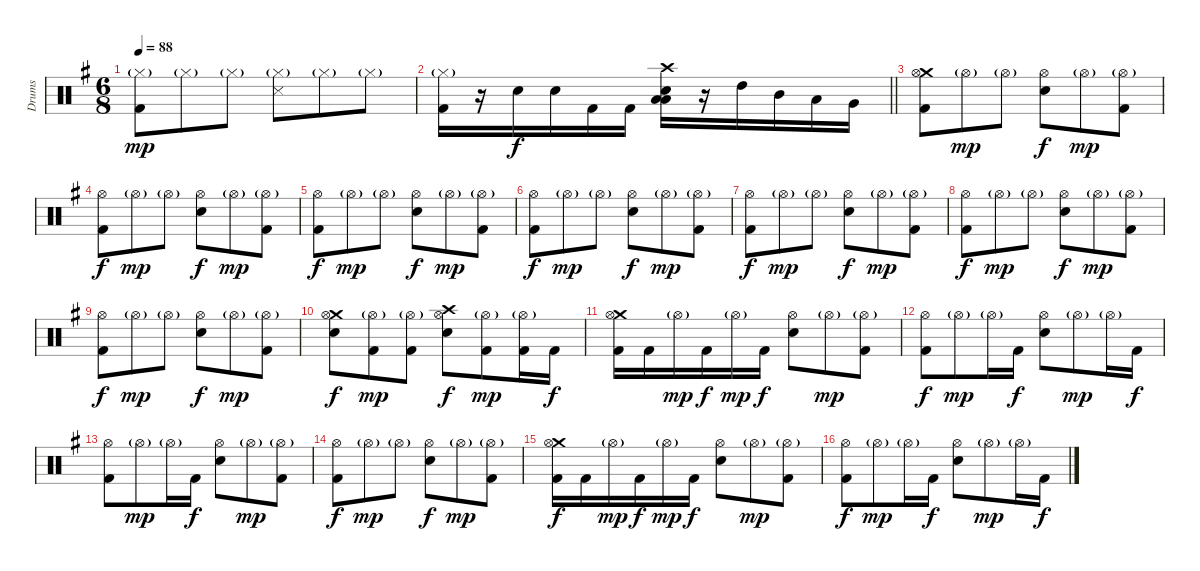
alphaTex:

\track ("Drums" "Drums") {instrument percussion}
\staff {score}
\articulation defaults
\ts (6 8)
\tempo 88
\clef neutral
\ks eminor
("Hi-Hat (closed)"{g} "Kick (hit) 2").8{dy mp} "Hi-Hat (closed)"{g}.8 "Hi-Hat (closed)"{g}.8 ("Hi-Hat (closed)"{g} "Snare (side stick) 3").8 "Hi-Hat (closed)"{g}.8 "Hi-Hat (closed)"{g}.8 |
\barLineRight lightlight
("Hi-Hat (closed)"{g} "Kick (hit) 2").16 r.16 "Electric Snare (hit)".16{dy f} "Electric Snare (hit)".16 "Kick (hit) 2".16 "Kick (hit) 2".16 ("Crash high (hit)" "Low Floor Tom (hit)" "Electric Snare (hit)" "Low Tom (hit)").16 r.16 "High Tom (hit)".16 "Mid Tom (hit)".16 "Low Tom (hit)".16 "Very Low Tom (hit)".16 |
\section ("" "")
("Crash medium (hit)" "Hi-Hat (open)" "Kick (hit) 2").8 "Hi-Hat (open)"{g}.8{dy mp} "Hi-Hat (open)"{g}.8 ("Hi-Hat (open)" "Electric Snare (hit)").8{dy f} "Hi-Hat (open)"{g}.8{dy mp} ("Hi-Hat (open)"{g} "Kick (hit) 2").8 |
("Hi-Hat (open)" "Kick (hit) 2").8{dy f} "Hi-Hat (open)"{g}.8{dy mp} "Hi-Hat (open)"{g}.8 ("Hi-Hat (open)" "Electric Snare (hit)").8{dy f} "Hi-Hat (open)"{g}.8{dy mp} ("Hi-Hat (open)"{g} "Kick (hit) 2").8 |
("Hi-Hat (open)" "Kick (hit) 2").8{dy f} "Hi-Hat (open)"{g}.8{dy mp} "Hi-Hat (open)"{g}.8 ("Hi-Hat (open)" "Electric Snare (hit)").8{dy f} "Hi-Hat (open)"{g}.8{dy mp} ("Hi-Hat (open)"{g} "Kick (hit) 2").8 |
("Hi-Hat (open)" "Kick (hit) 2").8{dy f} "Hi-Hat (open)"{g}.8{dy mp} "Hi-Hat (open)"{g}.8 ("Hi-Hat (open)" "Electric Snare (hit)").8{dy f} "Hi-Hat (open)"{g}.8{dy mp} ("Hi-Hat (open)"{g} "Kick (hit) 2").8 |
("Hi-Hat (open)" "Kick (hit) 2").8{dy f} "Hi-Hat (open)"{g}.8{dy mp} "Hi-Hat (open)"{g}.8 ("Hi-Hat (open)" "Electric Snare (hit)").8{dy f} "Hi-Hat (open)"{g}.8{dy mp} ("Hi-Hat (open)"{g} "Kick (hit) 2").8 |
("Hi-Hat (open)" "Kick (hit) 2").8{dy f} "Hi-Hat (open)"{g}.8{dy mp} "Hi-Hat (open)"{g}.8 ("Hi-Hat (open)" "Electric Snare (hit)").8{dy f} "Hi-Hat (open)"{g}.8{dy mp} ("Hi-Hat (open)"{g} "Kick (hit) 2").8 |
("Hi-Hat (open)" "Kick (hit) 2").8{dy f} "Hi-Hat (open)"{g}.8{dy mp} "Hi-Hat (open)"{g}.8 ("Hi-Hat (open)" "Electric Snare (hit)").8{dy f} "Hi-Hat (open)"{g}.8{dy mp} ("Hi-Hat (open)"{g} "Kick (hit) 2").8 |
("Crash medium (hit)" "Hi-Hat (open)" "Electric Snare (hit)").8{dy f} ("Hi-Hat (open)"{g} "Kick (hit) 2").8{dy mp} ("Hi-Hat (open)"{g} "Kick (hit) 2").8 ("Crash high (hit)" "Hi-Hat (open)" "Electric Snare (hit)").8{dy f} ("Hi-Hat (open)"{g} "Kick (hit) 2").8{dy mp} ("Hi-Hat (open)"{g} "Kick (hit) 2").16 "Kick (hit) 2".16{dy f} |
("Crash medium (hit)" "Hi-Hat (open)" "Kick (hit) 2").16 "Kick (hit) 2".16 "Hi-Hat (open)"{g}.16{dy mp} "Kick (hit) 2".16{dy f} "Hi-Hat (open)"{g}.16{dy mp} "Kick (hit) 2".16{dy f} ("Hi-Hat (open)" "Electric Snare (hit)").8 "Hi-Hat (open)"{g}.8{dy mp} ("Hi-Hat (open)"{g} "Kick (hit) 2").8 |
("Hi-Hat (open)" "Kick (hit) 2").8{dy f} "Hi-Hat (open)"{g}.8{dy mp} "Hi-Hat (open)"{g}.16 "Kick (hit) 2".16{dy f} ("Hi-Hat (open)" "Electric Snare (hit)").8 "Hi-Hat (open)"{g}.8{dy mp} "Hi-Hat (open)"{g}.16 "Kick (hit) 2".16{dy f} |
("Hi-Hat (open)" "Kick (hit) 2").8 "Hi-Hat (open)"{g}.8{dy mp} "Hi-Hat (open)"{g}.16 "Kick (hit) 2".16{dy f} ("Hi-Hat (open)" "Electric Snare (hit)").8 "Hi-Hat (open)"{g}.8{dy mp} ("Hi-Hat (open)"{g} "Kick (hit) 2").8 |
("Hi-Hat (open)" "Kick (hit) 2").8{dy f} "Hi-Hat (open)"{g}.8{dy mp} "Hi-Hat (open)"{g}.8 ("Hi-Hat (open)" "Electric Snare (hit)").8{dy f} "Hi-Hat (open)"{g}.8{dy mp} ("Hi-Hat (open)"{g} "Kick (hit) 2").8 |
("Crash medium (hit)" "Hi-Hat (open)" "Kick (hit) 2").16{dy f} "Kick (hit) 2".16 "Hi-Hat (open)"{g}.16{dy mp} "Kick (hit) 2".16{dy f} "Hi-Hat (open)"{g}.16{dy mp} "Kick (hit) 2".16{dy f} ("Hi-Hat (open)" "Electric Snare (hit)").8 "Hi-Hat (open)"{g}.8{dy mp} ("Hi-Hat (open)"{g} "Kick (hit) 2").8 |
("Hi-Hat (open)" "Kick (hit) 2").8{dy f} "Hi-Hat (open)"{g}.8{dy mp} "Hi-Hat (open)"{g}.16 "Kick (hit) 2".16{dy f} ("Hi-Hat (open)" "Electric Snare (hit)").8 "Hi-Hat (open)"{g}.8{dy mp} "Hi-Hat (open)"{g}.16 "Kick (hit) 2".16{dy f}
